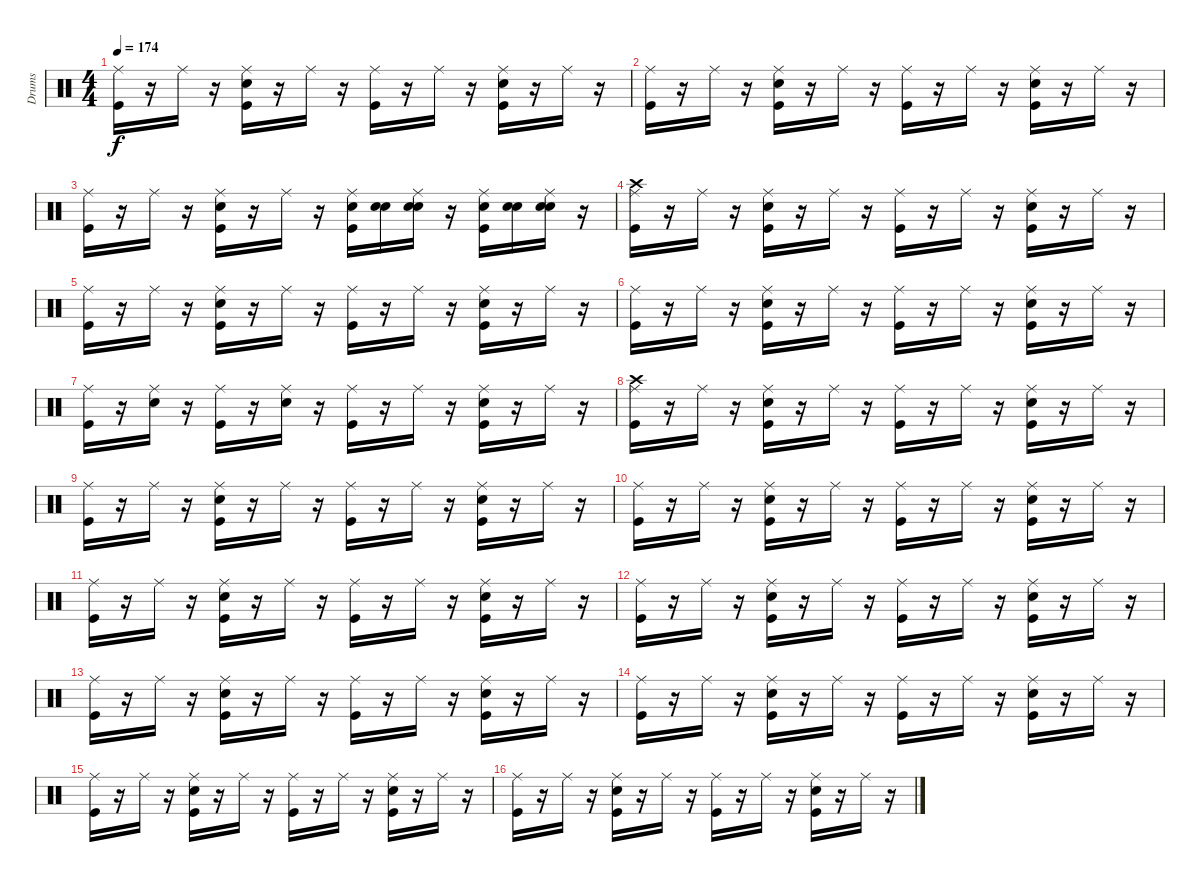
\track ("Drums" "Drums") {instrument percussion}
\staff {score}
\articulation defaults
\ts (4 4)
\tempo 174
\clef neutral
\ks c
("Kick (hit)" "Ride (middle)").16{dy f} r.16 "Ride (middle)".16 r.16 ("Kick (hit)" "Snare (hit) 2" "Ride (middle)").16 r.16 "Ride (middle)".16 r.16 ("Kick (hit)" "Ride (middle)").16 r.16 "Ride (middle)".16 r.16 ("Kick (hit)" "Snare (hit) 2" "Ride (middle)").16 r.16 "Ride (middle)".16 r.16 |
("Kick (hit)" "Ride (middle)").16 r.16 "Ride (middle)".16 r.16 ("Kick (hit)" "Snare (hit) 2" "Ride (middle)").16 r.16 "Ride (middle)".16 r.16 ("Kick (hit)" "Ride (middle)").16 r.16 "Ride (middle)".16 r.16 ("Kick (hit)" "Snare (hit) 2" "Ride (middle)").16 r.16 "Ride (middle)".16 r.16 |
("Kick (hit)" "Ride (middle)").16 r.16 "Ride (middle)".16 r.16 ("Kick (hit)" "Snare (hit) 2" "Ride (middle)").16 r.16 "Ride (middle)".16 r.16 ("Snare (hit) 2" "Kick (hit)" "Ride (middle)").16 ("Snare (hit)" "Snare (hit) 2").16 ("Snare (hit)" "Snare (hit) 2" "Ride (middle)").16 r.16 ("Snare (hit) 2" "Kick (hit)" "Ride (middle)").16 ("Snare (hit)" "Snare (hit) 2").16 ("Snare (hit)" "Snare (hit) 2" "Ride (middle)").16 r.16 |
("Crash high (hit)" "Kick (hit)" "Ride (middle)").16 r.16 "Ride (middle)".16 r.16 ("Kick (hit)" "Snare (hit) 2" "Ride (middle)").16 r.16 "Ride (middle)".16 r.16 ("Kick (hit)" "Ride (middle)").16 r.16 "Ride (middle)".16 r.16 ("Kick (hit)" "Snare (hit) 2" "Ride (middle)").16 r.16 "Ride (middle)".16 r.16 |
("Kick (hit)" "Ride (middle)").16 r.16 "Ride (middle)".16 r.16 ("Kick (hit)" "Snare (hit) 2" "Ride (middle)").16 r.16 "Ride (middle)".16 r.16 ("Kick (hit)" "Ride (middle)").16 r.16 "Ride (middle)".16 r.16 ("Kick (hit)" "Snare (hit) 2" "Ride (middle)").16 r.16 "Ride (middle)".16 r.16 |
("Kick (hit)" "Ride (middle)").16 r.16 "Ride (middle)".16 r.16 ("Kick (hit)" "Snare (hit) 2" "Ride (middle)").16 r.16 "Ride (middle)".16 r.16 ("Kick (hit)" "Ride (middle)").16 r.16 "Ride (middle)".16 r.16 ("Kick (hit)" "Snare (hit) 2" "Ride (middle)").16 r.16 "Ride (middle)".16 r.16 |
("Kick (hit)" "Ride (middle)").16 r.16 ("Snare (hit) 2" "Ride (middle)").16 r.16 ("Kick (hit)" "Ride (middle)").16 r.16 ("Snare (hit) 2" "Ride (middle)").16 r.16 ("Kick (hit)" "Ride (middle)").16 r.16 "Ride (middle)".16 r.16 ("Snare (hit) 2" "Kick (hit)" "Ride (middle)").16 r.16 "Ride (middle)".16 r.16 |
("Crash high (hit)" "Kick (hit)" "Ride (middle)").16 r.16 "Ride (middle)".16 r.16 ("Kick (hit)" "Snare (hit) 2" "Ride (middle)").16 r.16 "Ride (middle)".16 r.16 ("Kick (hit)" "Ride (middle)").16 r.16 "Ride (middle)".16 r.16 ("Kick (hit)" "Snare (hit) 2" "Ride (middle)").16 r.16 "Ride (middle)".16 r.16 |
("Kick (hit)" "Ride (middle)").16 r.16 "Ride (middle)".16 r.16 ("Kick (hit)" "Snare (hit) 2" "Ride (middle)").16 r.16 "Ride (middle)".16 r.16 ("Kick (hit)" "Ride (middle)").16 r.16 "Ride (middle)".16 r.16 ("Kick (hit)" "Snare (hit) 2" "Ride (middle)").16 r.16 "Ride (middle)".16 r.16 |
("Kick (hit)" "Ride (middle)").16 r.16 "Ride (middle)".16 r.16 ("Kick (hit)" "Snare (hit) 2" "Ride (middle)").16 r.16 "Ride (middle)".16 r.16 ("Kick (hit)" "Ride (middle)").16 r.16 "Ride (middle)".16 r.16 ("Kick (hit)" "Snare (hit) 2" "Ride (middle)").16 r.16 "Ride (middle)".16 r.16 |
("Kick (hit)" "Ride (middle)").16 r.16 "Ride (middle)".16 r.16 ("Kick (hit)" "Snare (hit) 2" "Ride (middle)").16 r.16 "Ride (middle)".16 r.16 ("Kick (hit)" "Ride (middle)").16 r.16 "Ride (middle)".16 r.16 ("Kick (hit)" "Snare (hit) 2" "Ride (middle)").16 r.16 "Ride (middle)".16 r.16 |
("Kick (hit)" "Ride (middle)").16 r.16 "Ride (middle)".16 r.16 ("Kick (hit)" "Snare (hit) 2" "Ride (middle)").16 r.16 "Ride (middle)".16 r.16 ("Kick (hit)" "Ride (middle)").16 r.16 "Ride (middle)".16 r.16 ("Kick (hit)" "Snare (hit) 2" "Ride (middle)").16 r.16 "Ride (middle)".16 r.16 |
("Kick (hit)" "Ride (middle)").16 r.16 "Ride (middle)".16 r.16 ("Kick (hit)" "Snare (hit) 2" "Ride (middle)").16 r.16 "Ride (middle)".16 r.16 ("Kick (hit)" "Ride (middle)").16 r.16 "Ride (middle)".16 r.16 ("Kick (hit)" "Snare (hit) 2" "Ride (middle)").16 r.16 "Ride (middle)".16 r.16 |
("Kick (hit)" "Ride (middle)").16 r.16 "Ride (middle)".16 r.16 ("Kick (hit)" "Snare (hit) 2" "Ride (middle)").16 r.16 "Ride (middle)".16 r.16 ("Kick (hit)" "Ride (middle)").16 r.16 "Ride (middle)".16 r.16 ("Kick (hit)" "Snare (hit) 2" "Ride (middle)").16 r.16 "Ride (middle)".16 r.16 |
("Kick (hit)" "Ride (middle)").16 r.16 "Ride (middle)".16 r.16 ("Kick (hit)" "Snare (hit) 2" "Ride (middle)").16 r.16 "Ride (middle)".16 r.16 ("Kick (hit)" "Ride (middle)").16 r.16 "Ride (middle)".16 r.16 ("Kick (hit)" "Snare (hit) 2" "Ride (middle)").16 r.16 "Ride (middle)".16 r.16 |
("Kick (hit)" "Ride (middle)").16 r.16 "Ride (middle)".16 r.16 ("Kick (hit)" "Snare (hit) 2" "Ride (middle)").16 r.16 "Ride (middle)".16 r.16 ("Kick (hit)" "Ride (middle)").16 r.16 "Ride (middle)".16 r.16 ("Kick (hit)" "Snare (hit) 2" "Ride (middle)").16 r.16 "Ride (middle)".16 r.16
